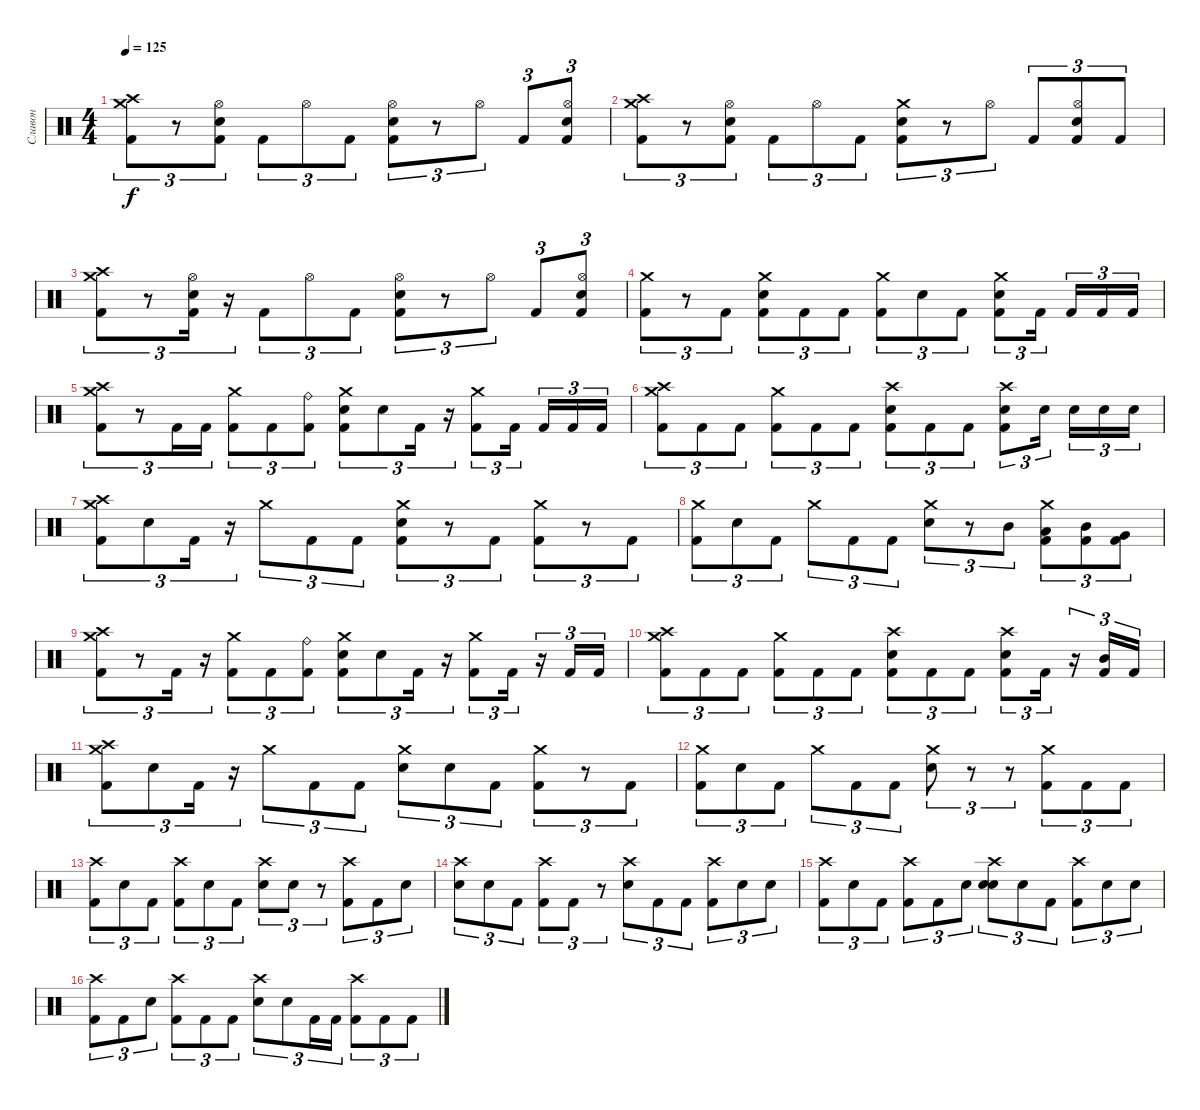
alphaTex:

\track ("Славон" "Славон") {instrument percussion}
\staff {score}
\articulation defaults
\ts (4 4)
\tempo 125
\clef neutral
\ks c
("Crash medium (hit)" "Crash high (hit)" "Kick (hit) 2").8{tu (3 2) dy f} r.8{tu (3 2)} ("Hi-Hat (open)" "Electric Snare (hit)" "Kick (hit) 2").8{tu (3 2)} "Kick (hit) 2".8{tu (3 2)} "Hi-Hat (open)".8{tu (3 2)} "Kick (hit) 2".8{tu (3 2)} ("Hi-Hat (open)" "Electric Snare (hit)" "Kick (hit) 2").8{tu (3 2)} r.8{tu (3 2)} "Hi-Hat (open)".8{tu (3 2)} "Kick (hit) 2".8{tu (3 2)} ("Hi-Hat (open)" "Electric Snare (hit)" "Kick (hit) 2").8{tu (3 2)} |
("Crash medium (hit)" "Crash high (hit)" "Kick (hit) 2").8{tu (3 2)} r.8{tu (3 2)} ("Hi-Hat (open)" "Electric Snare (hit)" "Kick (hit) 2").8{tu (3 2)} "Kick (hit) 2".8{tu (3 2)} "Hi-Hat (open)".8{tu (3 2)} "Kick (hit) 2".8{tu (3 2)} ("Crash medium (hit)" "Electric Snare (hit)" "Kick (hit) 2").8{tu (3 2)} r.8{tu (3 2)} "Hi-Hat (open)".8{tu (3 2)} "Kick (hit) 2".8{tu (3 2)} ("Hi-Hat (open)" "Electric Snare (hit)" "Kick (hit) 2").8{tu (3 2)} "Kick (hit) 2".8{tu (3 2)} |
("Crash medium (hit)" "Crash high (hit)" "Kick (hit) 2").8{tu (3 2)} r.8{tu (3 2)} ("Hi-Hat (open)" "Electric Snare (hit)" "Kick (hit) 2").16{tu (3 2)} r.16{tu (3 2)} "Kick (hit) 2".8{tu (3 2)} "Hi-Hat (open)".8{tu (3 2)} "Kick (hit) 2".8{tu (3 2)} ("Hi-Hat (open)" "Electric Snare (hit)" "Kick (hit) 2").8{tu (3 2)} r.8{tu (3 2)} "Hi-Hat (open)".8{tu (3 2)} "Kick (hit) 2".8{tu (3 2)} ("Hi-Hat (open)" "Electric Snare (hit)" "Kick (hit) 2").8{tu (3 2)} |
("Crash medium (hit)" "Kick (hit) 2").8{tu (3 2)} r.8{tu (3 2)} "Kick (hit) 2".8{tu (3 2)} ("Crash medium (hit)" "Electric Snare (hit)" "Kick (hit) 2").8{tu (3 2)} "Kick (hit) 2".8{tu (3 2)} "Kick (hit) 2".8{tu (3 2)} ("Crash medium (hit)" "Kick (hit) 2").8{tu (3 2)} "Electric Snare (hit)".8{tu (3 2)} "Kick (hit) 2".8{tu (3 2)} ("Crash medium (hit)" "Electric Snare (hit)" "Kick (hit) 2").8{tu (3 2)} "Kick (hit) 2".16{tu (3 2)} "Kick (hit) 2".16{tu (3 2)} "Kick (hit) 2".16{tu (3 2)} "Kick (hit) 2".16{tu (3 2)} |
("Crash medium (hit)" "Crash high (hit)" "Kick (hit) 2").8{tu (3 2)} r.8{tu (3 2)} "Kick (hit) 2".16{tu (3 2)} "Kick (hit) 2".16{tu (3 2)} ("Crash medium (hit)" "Kick (hit) 2").8{tu (3 2)} "Kick (hit) 2".8{tu (3 2)} ("Ride (bell)" "Kick (hit) 2").8{tu (3 2)} ("Crash medium (hit)" "Electric Snare (hit)" "Kick (hit) 2").8{tu (3 2)} "Snare (hit)".8{tu (3 2)} "Kick (hit) 2".16{tu (3 2)} r.16{tu (3 2)} ("Crash medium (hit)" "Kick (hit) 2").8{tu (3 2)} "Kick (hit) 2".16{tu (3 2)} "Kick (hit) 2".16{tu (3 2)} "Kick (hit) 2".16{tu (3 2)} "Kick (hit) 2".16{tu (3 2)} |
("Crash medium (hit)" "Crash high (hit)" "Kick (hit) 2").8{tu (3 2)} "Kick (hit) 2".8{tu (3 2)} "Kick (hit) 2".8{tu (3 2)} ("Crash medium (hit)" "Kick (hit) 2").8{tu (3 2)} "Kick (hit) 2".8{tu (3 2)} "Kick (hit) 2".8{tu (3 2)} ("Crash high (hit)" "Electric Snare (hit)" "Kick (hit) 2").8{tu (3 2)} "Kick (hit) 2".8{tu (3 2)} "Kick (hit) 2".8{tu (3 2)} ("Crash high (hit)" "Electric Snare (hit)" "Kick (hit) 2").8{tu (3 2)} "Electric Snare (hit)".16{tu (3 2)} "Electric Snare (hit)".16{tu (3 2)} "Electric Snare (hit)".16{tu (3 2)} "Electric Snare (hit)".16{tu (3 2)} |
("Crash medium (hit)" "Crash high (hit)" "Kick (hit) 2").8{tu (3 2)} "Snare (hit)".8{tu (3 2)} "Kick (hit) 2".16{tu (3 2)} r.16{tu (3 2)} "Crash medium (hit)".8{tu (3 2)} "Kick (hit) 2".8{tu (3 2)} "Kick (hit) 2".8{tu (3 2)} ("Crash medium (hit)" "Electric Snare (hit)" "Kick (hit) 2").8{tu (3 2)} r.8{tu (3 2)} "Kick (hit) 2".8{tu (3 2)} ("Crash medium (hit)" "Kick (hit) 2").8{tu (3 2)} r.8{tu (3 2)} "Kick (hit) 2".8{tu (3 2)} |
("Crash medium (hit)" "Kick (hit) 2").8{tu (3 2)} "Snare (hit)".8{tu (3 2)} "Kick (hit) 2".8{tu (3 2)} "Crash medium (hit)".8{tu (3 2)} "Kick (hit) 2".8{tu (3 2)} "Kick (hit) 2".8{tu (3 2)} ("Crash medium (hit)" "Electric Snare (hit)").8{tu (3 2)} r.8{tu (3 2)} "Mid Tom (hit)".8{tu (3 2)} ("Crash medium (hit)" "Low Floor Tom (hit)" "Kick (hit) 2").8{tu (3 2)} ("Mid Tom (hit)" "Kick (hit) 2").8{tu (3 2)} ("Very Low Tom (hit)" "Kick (hit) 2").8{tu (3 2)} |
("Crash medium (hit)" "Crash high (hit)" "Kick (hit) 2").8{tu (3 2)} r.8{tu (3 2)} "Kick (hit) 2".16{tu (3 2)} r.16{tu (3 2)} ("Crash medium (hit)" "Kick (hit) 2").8{tu (3 2)} "Kick (hit) 2".8{tu (3 2)} ("Ride (bell)" "Kick (hit) 2").8{tu (3 2)} ("Crash medium (hit)" "Electric Snare (hit)" "Kick (hit) 2").8{tu (3 2)} "Snare (hit)".8{tu (3 2)} "Kick (hit) 2".16{tu (3 2)} r.16{tu (3 2)} ("Crash medium (hit)" "Kick (hit) 2").8{tu (3 2)} "Kick (hit) 2".16{tu (3 2)} r.16{tu (3 2)} "Kick (hit) 2".16{tu (3 2)} "Kick (hit) 2".16{tu (3 2)} |
("Crash medium (hit)" "Crash high (hit)" "Kick (hit) 2").8{tu (3 2)} "Kick (hit) 2".8{tu (3 2)} "Kick (hit) 2".8{tu (3 2)} ("Crash medium (hit)" "Kick (hit) 2").8{tu (3 2)} "Kick (hit) 2".8{tu (3 2)} "Kick (hit) 2".8{tu (3 2)} ("Crash high (hit)" "Electric Snare (hit)" "Kick (hit) 2").8{tu (3 2)} "Kick (hit) 2".8{tu (3 2)} "Kick (hit) 2".8{tu (3 2)} ("Crash high (hit)" "Electric Snare (hit)" "Kick (hit) 2").8{tu (3 2)} "Kick (hit) 2".16{tu (3 2)} r.16{tu (3 2)} ("Mid Tom (hit)" "Kick (hit) 2").16{tu (3 2)} "Kick (hit) 2".16{tu (3 2)} |
("Crash medium (hit)" "Crash high (hit)" "Kick (hit) 2").8{tu (3 2)} "Snare (hit)".8{tu (3 2)} "Kick (hit) 2".16{tu (3 2)} r.16{tu (3 2)} "Crash medium (hit)".8{tu (3 2)} "Kick (hit) 2".8{tu (3 2)} "Kick (hit) 2".8{tu (3 2)} ("Crash medium (hit)" "Electric Snare (hit)").8{tu (3 2)} "Snare (hit)".8{tu (3 2)} "Kick (hit) 2".8{tu (3 2)} ("Crash medium (hit)" "Kick (hit) 2").8{tu (3 2)} r.8{tu (3 2)} "Kick (hit) 2".8{tu (3 2)} |
("Crash medium (hit)" "Kick (hit) 2").8{tu (3 2)} "Snare (hit)".8{tu (3 2)} "Kick (hit) 2".8{tu (3 2)} "Crash medium (hit)".8{tu (3 2)} "Kick (hit) 2".8{tu (3 2)} "Kick (hit) 2".8{tu (3 2)} ("Crash medium (hit)" "Electric Snare (hit)").8{tu (3 2)} r.8{tu (3 2)} r.8{tu (3 2)} ("Crash medium (hit)" "Kick (hit) 2").8{tu (3 2)} "Kick (hit) 2".8{tu (3 2)} "Kick (hit) 2".8{tu (3 2)} |
("Crash high (hit)" "Kick (hit) 2").8{tu (3 2)} "Snare (hit)".8{tu (3 2)} "Kick (hit) 2".8{tu (3 2)} ("Crash high (hit)" "Kick (hit) 2").8{tu (3 2)} "Snare (hit)".8{tu (3 2)} "Kick (hit) 2".8{tu (3 2)} ("Crash high (hit)" "Electric Snare (hit)").8{tu (3 2)} "Snare (hit)".8{tu (3 2)} r.8{tu (3 2)} ("Crash high (hit)" "Kick (hit) 2").8{tu (3 2)} "Kick (hit) 2".8{tu (3 2)} "Snare (hit)".8{tu (3 2)} |
("Crash high (hit)" "Snare (hit)").8{tu (3 2)} "Snare (hit)".8{tu (3 2)} "Kick (hit) 2".8{tu (3 2)} ("Crash high (hit)" "Kick (hit) 2").8{tu (3 2)} "Kick (hit) 2".8{tu (3 2)} r.8{tu (3 2)} ("Crash high (hit)" "Electric Snare (hit)").8{tu (3 2)} "Kick (hit) 2".8{tu (3 2)} "Kick (hit) 2".8{tu (3 2)} ("Crash high (hit)" "Kick (hit) 2").8{tu (3 2)} "Snare (hit)".8{tu (3 2)} "Snare (hit)".8{tu (3 2)} |
("Crash high (hit)" "Kick (hit) 2").8{tu (3 2)} "Snare (hit)".8{tu (3 2)} "Kick (hit) 2".8{tu (3 2)} ("Crash high (hit)" "Kick (hit) 2").8{tu (3 2)} "Kick (hit) 2".8{tu (3 2)} "Snare (hit)".8{tu (3 2)} ("Crash high (hit)" "Electric Snare (hit)" "Snare (hit)").8{tu (3 2)} "Snare (hit)".8{tu (3 2)} "Kick (hit) 2".8{tu (3 2)} ("Crash high (hit)" "Kick (hit) 2").8{tu (3 2)} "Snare (hit)".8{tu (3 2)} "Snare (hit)".8{tu (3 2)} |
("Crash high (hit)" "Kick (hit) 2").8{tu (3 2)} "Kick (hit) 2".8{tu (3 2)} "Snare (hit)".8{tu (3 2)} ("Crash high (hit)" "Kick (hit) 2").8{tu (3 2)} "Kick (hit) 2".8{tu (3 2)} "Kick (hit) 2".8{tu (3 2)} ("Crash high (hit)" "Electric Snare (hit)").8{tu (3 2)} "Snare (hit)".8{tu (3 2)} "Kick (hit) 2".16{tu (3 2)} "Kick (hit) 2".16{tu (3 2)} ("Crash high (hit)" "Kick (hit) 2").8{tu (3 2)} "Kick (hit) 2".8{tu (3 2)} "Kick (hit) 2".8{tu (3 2)}
